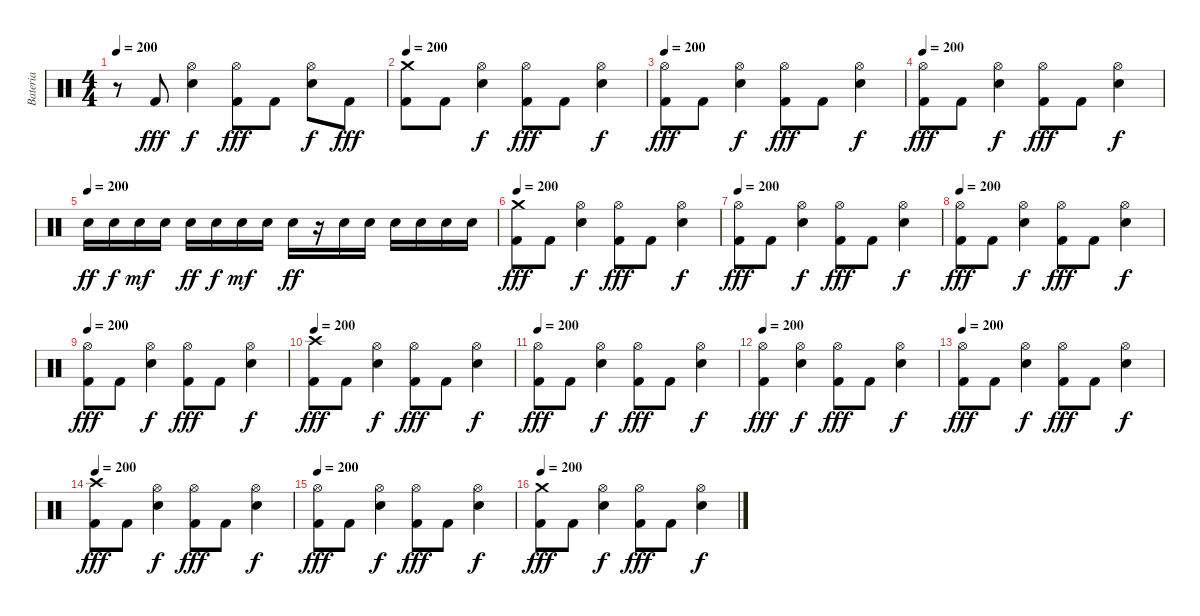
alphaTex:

\track ("Bateria" "Bateria") {instrument percussion}
\staff {score}
\articulation defaults
\ts (4 4)
\tempo 200
\clef neutral
\ks c
r.8{dy fff} "Kick (hit) 2".8 ("Hi-Hat (open)" "Electric Snare (hit)").4{dy f} ("Hi-Hat (open)" "Kick (hit) 2").8{dy fff} "Kick (hit) 2".8 ("Hi-Hat (open)" "Electric Snare (hit)").8{dy f} "Kick (hit) 2".8{dy fff} |
\tempo 200
("Crash medium (hit)" "Kick (hit) 2").8 "Kick (hit) 2".8 ("Hi-Hat (open)" "Electric Snare (hit)").4{dy f} ("Hi-Hat (open)" "Kick (hit) 2").8{dy fff} "Kick (hit) 2".8 ("Hi-Hat (open)" "Electric Snare (hit)").4{dy f} |
\tempo 200
("Hi-Hat (open)" "Kick (hit) 2").8{dy fff} "Kick (hit) 2".8 ("Hi-Hat (open)" "Electric Snare (hit)").4{dy f} ("Hi-Hat (open)" "Kick (hit) 2").8{dy fff} "Kick (hit) 2".8 ("Hi-Hat (open)" "Electric Snare (hit)").4{dy f} |
\tempo 200
("Hi-Hat (open)" "Kick (hit) 2").8{dy fff} "Kick (hit) 2".8 ("Hi-Hat (open)" "Electric Snare (hit)").4{dy f} ("Hi-Hat (open)" "Kick (hit) 2").8{dy fff} "Kick (hit) 2".8 ("Hi-Hat (open)" "Electric Snare (hit)").4{dy f} |
\tempo (200)
"Electric Snare (hit)".16{dy ff} "Electric Snare (hit)".16{dy f} "Electric Snare (hit)".16{dy mf} "Electric Snare (hit)".16 "Electric Snare (hit)".16{dy ff} "Electric Snare (hit)".16{dy f} "Electric Snare (hit)".16{dy mf} "Electric Snare (hit)".16 "Electric Snare (hit)".16{dy ff} r.16 "Electric Snare (hit)".16 "Electric Snare (hit)".16 "Electric Snare (hit)".16 "Electric Snare (hit)".16 "Electric Snare (hit)".16 "Electric Snare (hit)".16 |
\tempo 200
("Crash medium (hit)" "Kick (hit) 2").8{dy fff} "Kick (hit) 2".8 ("Hi-Hat (open)" "Electric Snare (hit)").4{dy f} ("Hi-Hat (open)" "Kick (hit) 2").8{dy fff} "Kick (hit) 2".8 ("Hi-Hat (open)" "Electric Snare (hit)").4{dy f} |
\tempo 200
("Hi-Hat (open)" "Kick (hit) 2").8{dy fff} "Kick (hit) 2".8 ("Hi-Hat (open)" "Electric Snare (hit)").4{dy f} ("Hi-Hat (open)" "Kick (hit) 2").8{dy fff} "Kick (hit) 2".8 ("Hi-Hat (open)" "Electric Snare (hit)").4{dy f} |
\tempo 200
("Hi-Hat (open)" "Kick (hit) 2").8{dy fff} "Kick (hit) 2".8 ("Hi-Hat (open)" "Electric Snare (hit)").4{dy f} ("Hi-Hat (open)" "Kick (hit) 2").8{dy fff} "Kick (hit) 2".8 ("Hi-Hat (open)" "Electric Snare (hit)").4{dy f} |
\tempo 200
("Hi-Hat (open)" "Kick (hit) 2").8{dy fff} "Kick (hit) 2".8 ("Hi-Hat (open)" "Electric Snare (hit)").4{dy f} ("Hi-Hat (open)" "Kick (hit) 2").8{dy fff} "Kick (hit) 2".8 ("Hi-Hat (open)" "Electric Snare (hit)").4{dy f} |
\tempo 200
("Crash high (hit)" "Kick (hit) 2").8{dy fff} "Kick (hit) 2".8 ("Hi-Hat (open)" "Electric Snare (hit)").4{dy f} ("Hi-Hat (open)" "Kick (hit) 2").8{dy fff} "Kick (hit) 2".8 ("Hi-Hat (open)" "Electric Snare (hit)").4{dy f} |
\tempo 200
("Hi-Hat (open)" "Kick (hit) 2").8{dy fff} "Kick (hit) 2".8 ("Hi-Hat (open)" "Electric Snare (hit)").4{dy f} ("Hi-Hat (open)" "Kick (hit) 2").8{dy fff} "Kick (hit) 2".8 ("Hi-Hat (open)" "Electric Snare (hit)").4{dy f} |
\tempo 200
("Hi-Hat (open)" "Kick (hit) 2").4{dy fff} ("Hi-Hat (open)" "Electric Snare (hit)").4{dy f} ("Hi-Hat (open)" "Kick (hit) 2").8{dy fff} "Kick (hit) 2".8 ("Hi-Hat (open)" "Electric Snare (hit)").4{dy f} |
\tempo 200
("Hi-Hat (open)" "Kick (hit) 2").8{dy fff} "Kick (hit) 2".8 ("Hi-Hat (open)" "Electric Snare (hit)").4{dy f} ("Hi-Hat (open)" "Kick (hit) 2").8{dy fff} "Kick (hit) 2".8 ("Hi-Hat (open)" "Electric Snare (hit)").4{dy f} |
\tempo 200
("Crash high (hit)" "Kick (hit) 2").8{dy fff} "Kick (hit) 2".8 ("Hi-Hat (open)" "Electric Snare (hit)").4{dy f} ("Hi-Hat (open)" "Kick (hit) 2").8{dy fff} "Kick (hit) 2".8 ("Hi-Hat (open)" "Electric Snare (hit)").4{dy f} |
\tempo 200
("Hi-Hat (open)" "Kick (hit) 2").8{dy fff} "Kick (hit) 2".8 ("Hi-Hat (open)" "Electric Snare (hit)").4{dy f} ("Hi-Hat (open)" "Kick (hit) 2").8{dy fff} "Kick (hit) 2".8 ("Hi-Hat (open)" "Electric Snare (hit)").4{dy f} |
\tempo 200
("Crash medium (hit)" "Kick (hit) 2").8{dy fff} "Kick (hit) 2".8 ("Hi-Hat (open)" "Electric Snare (hit)").4{dy f} ("Hi-Hat (open)" "Kick (hit) 2").8{dy fff} "Kick (hit) 2".8 ("Hi-Hat (open)" "Electric Snare (hit)").4{dy f}
